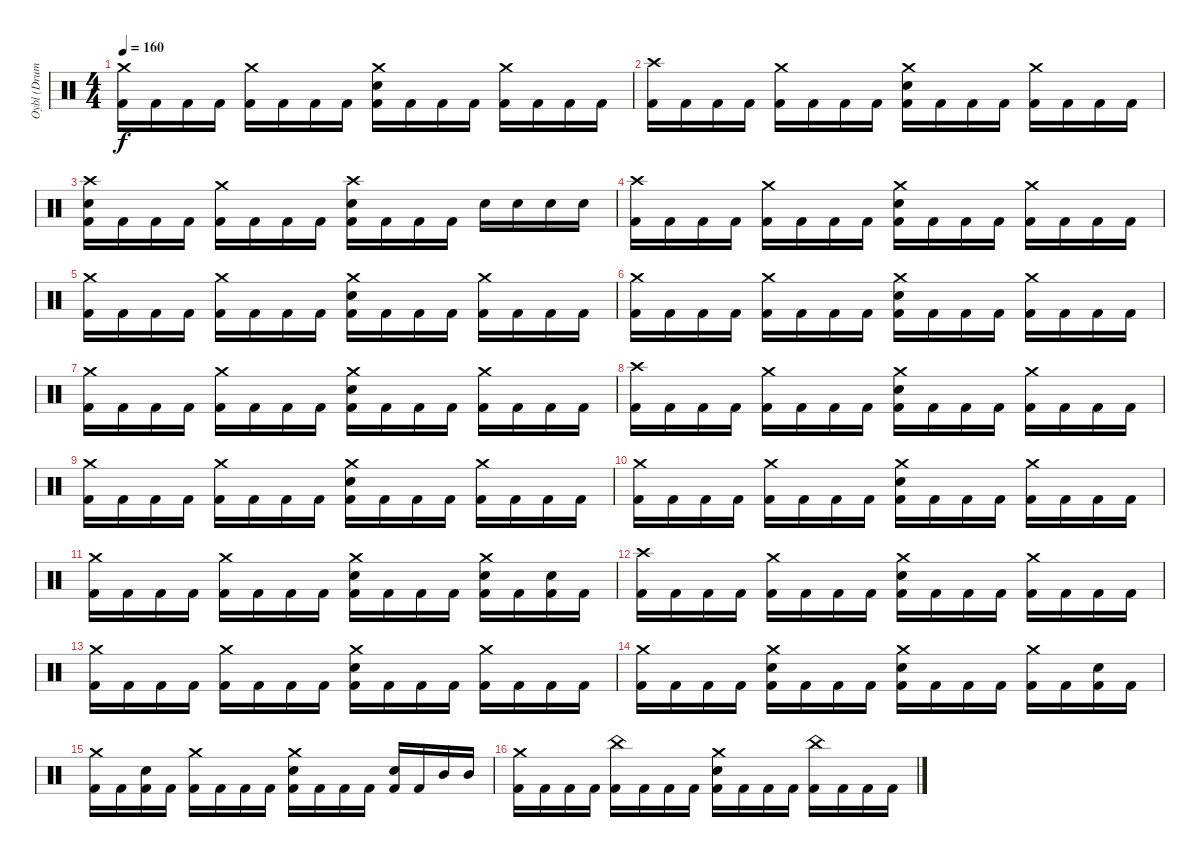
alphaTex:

\track ("Oybl (Drums)" "Oybl (Drum") {instrument percussion}
\staff {score}
\articulation defaults
\ts (4 4)
\tempo 160
\clef neutral
\ks c
("Crash medium (hit)" "Kick (hit) 2").16{dy f} "Kick (hit) 2".16 "Kick (hit) 2".16 "Kick (hit) 2".16 ("Crash medium (hit)" "Kick (hit) 2").16 "Kick (hit) 2".16 "Kick (hit) 2".16 "Kick (hit) 2".16 ("Crash medium (hit)" "Snare (hit) 2" "Kick (hit) 2").16 "Kick (hit) 2".16 "Kick (hit) 2".16 "Kick (hit) 2".16 ("Crash medium (hit)" "Kick (hit) 2").16 "Kick (hit) 2".16 "Kick (hit) 2".16 "Kick (hit) 2".16 |
("Crash high (hit)" "Kick (hit) 2").16 "Kick (hit) 2".16 "Kick (hit) 2".16 "Kick (hit) 2".16 ("Crash medium (hit)" "Kick (hit) 2").16 "Kick (hit) 2".16 "Kick (hit) 2".16 "Kick (hit) 2".16 ("Crash medium (hit)" "Snare (hit) 2" "Kick (hit) 2").16 "Kick (hit) 2".16 "Kick (hit) 2".16 "Kick (hit) 2".16 ("Crash medium (hit)" "Kick (hit) 2").16 "Kick (hit) 2".16 "Kick (hit) 2".16 "Kick (hit) 2".16 |
("Crash high (hit)" "Snare (hit) 2" "Kick (hit) 2").16 "Kick (hit) 2".16 "Kick (hit) 2".16 "Kick (hit) 2".16 ("Crash medium (hit)" "Kick (hit) 2").16 "Kick (hit) 2".16 "Kick (hit) 2".16 "Kick (hit) 2".16 ("Crash high (hit)" "Snare (hit) 2" "Kick (hit) 2").16 "Kick (hit) 2".16 "Kick (hit) 2".16 "Kick (hit) 2".16 "Snare (hit) 2".16 "Snare (hit) 2".16 "Snare (hit) 2".16 "Snare (hit) 2".16 |
("Crash high (hit)" "Kick (hit) 2").16 "Kick (hit) 2".16 "Kick (hit) 2".16 "Kick (hit) 2".16 ("Crash medium (hit)" "Kick (hit) 2").16 "Kick (hit) 2".16 "Kick (hit) 2".16 "Kick (hit) 2".16 ("Crash medium (hit)" "Snare (hit) 2" "Kick (hit) 2").16 "Kick (hit) 2".16 "Kick (hit) 2".16 "Kick (hit) 2".16 ("Crash medium (hit)" "Kick (hit) 2").16 "Kick (hit) 2".16 "Kick (hit) 2".16 "Kick (hit) 2".16 |
("Crash medium (hit)" "Kick (hit) 2").16 "Kick (hit) 2".16 "Kick (hit) 2".16 "Kick (hit) 2".16 ("Crash medium (hit)" "Kick (hit) 2").16 "Kick (hit) 2".16 "Kick (hit) 2".16 "Kick (hit) 2".16 ("Crash medium (hit)" "Snare (hit) 2" "Kick (hit) 2").16 "Kick (hit) 2".16 "Kick (hit) 2".16 "Kick (hit) 2".16 ("Crash medium (hit)" "Kick (hit) 2").16 "Kick (hit) 2".16 "Kick (hit) 2".16 "Kick (hit) 2".16 |
("Crash medium (hit)" "Kick (hit) 2").16 "Kick (hit) 2".16 "Kick (hit) 2".16 "Kick (hit) 2".16 ("Crash medium (hit)" "Kick (hit) 2").16 "Kick (hit) 2".16 "Kick (hit) 2".16 "Kick (hit) 2".16 ("Crash medium (hit)" "Snare (hit) 2" "Kick (hit) 2").16 "Kick (hit) 2".16 "Kick (hit) 2".16 "Kick (hit) 2".16 ("Crash medium (hit)" "Kick (hit) 2").16 "Kick (hit) 2".16 "Kick (hit) 2".16 "Kick (hit) 2".16 |
("Crash medium (hit)" "Kick (hit) 2").16 "Kick (hit) 2".16 "Kick (hit) 2".16 "Kick (hit) 2".16 ("Crash medium (hit)" "Kick (hit) 2").16 "Kick (hit) 2".16 "Kick (hit) 2".16 "Kick (hit) 2".16 ("Crash medium (hit)" "Snare (hit) 2" "Kick (hit) 2").16 "Kick (hit) 2".16 "Kick (hit) 2".16 "Kick (hit) 2".16 ("Crash medium (hit)" "Kick (hit) 2").16 "Kick (hit) 2".16 "Kick (hit) 2".16 "Kick (hit) 2".16 |
("Crash high (hit)" "Kick (hit) 2").16 "Kick (hit) 2".16 "Kick (hit) 2".16 "Kick (hit) 2".16 ("Crash medium (hit)" "Kick (hit) 2").16 "Kick (hit) 2".16 "Kick (hit) 2".16 "Kick (hit) 2".16 ("Crash medium (hit)" "Snare (hit) 2" "Kick (hit) 2").16 "Kick (hit) 2".16 "Kick (hit) 2".16 "Kick (hit) 2".16 ("Crash medium (hit)" "Kick (hit) 2").16 "Kick (hit) 2".16 "Kick (hit) 2".16 "Kick (hit) 2".16 |
("Crash medium (hit)" "Kick (hit) 2").16 "Kick (hit) 2".16 "Kick (hit) 2".16 "Kick (hit) 2".16 ("Crash medium (hit)" "Kick (hit) 2").16 "Kick (hit) 2".16 "Kick (hit) 2".16 "Kick (hit) 2".16 ("Crash medium (hit)" "Snare (hit) 2" "Kick (hit) 2").16 "Kick (hit) 2".16 "Kick (hit) 2".16 "Kick (hit) 2".16 ("Crash medium (hit)" "Kick (hit) 2").16 "Kick (hit) 2".16 "Kick (hit) 2".16 "Kick (hit) 2".16 |
("Crash medium (hit)" "Kick (hit) 2").16 "Kick (hit) 2".16 "Kick (hit) 2".16 "Kick (hit) 2".16 ("Crash medium (hit)" "Kick (hit) 2").16 "Kick (hit) 2".16 "Kick (hit) 2".16 "Kick (hit) 2".16 ("Crash medium (hit)" "Snare (hit) 2" "Kick (hit) 2").16 "Kick (hit) 2".16 "Kick (hit) 2".16 "Kick (hit) 2".16 ("Crash medium (hit)" "Kick (hit) 2").16 "Kick (hit) 2".16 "Kick (hit) 2".16 "Kick (hit) 2".16 |
("Crash medium (hit)" "Kick (hit) 2").16 "Kick (hit) 2".16 "Kick (hit) 2".16 "Kick (hit) 2".16 ("Crash medium (hit)" "Kick (hit) 2").16 "Kick (hit) 2".16 "Kick (hit) 2".16 "Kick (hit) 2".16 ("Crash medium (hit)" "Snare (hit) 2" "Kick (hit) 2").16 "Kick (hit) 2".16 "Kick (hit) 2".16 "Kick (hit) 2".16 ("Crash medium (hit)" "Snare (hit) 2" "Kick (hit) 2").16 "Kick (hit) 2".16 ("Snare (hit) 2" "Kick (hit) 2").16 "Kick (hit) 2".16 |
("Crash high (hit)" "Kick (hit) 2").16 "Kick (hit) 2".16 "Kick (hit) 2".16 "Kick (hit) 2".16 ("Crash medium (hit)" "Kick (hit) 2").16 "Kick (hit) 2".16 "Kick (hit) 2".16 "Kick (hit) 2".16 ("Crash medium (hit)" "Snare (hit) 2" "Kick (hit) 2").16 "Kick (hit) 2".16 "Kick (hit) 2".16 "Kick (hit) 2".16 ("Crash medium (hit)" "Kick (hit) 2").16 "Kick (hit) 2".16 "Kick (hit) 2".16 "Kick (hit) 2".16 |
("Crash medium (hit)" "Kick (hit) 2").16 "Kick (hit) 2".16 "Kick (hit) 2".16 "Kick (hit) 2".16 ("Crash medium (hit)" "Kick (hit) 2").16 "Kick (hit) 2".16 "Kick (hit) 2".16 "Kick (hit) 2".16 ("Crash medium (hit)" "Snare (hit) 2" "Kick (hit) 2").16 "Kick (hit) 2".16 "Kick (hit) 2".16 "Kick (hit) 2".16 ("Crash medium (hit)" "Kick (hit) 2").16 "Kick (hit) 2".16 "Kick (hit) 2".16 "Kick (hit) 2".16 |
("Crash medium (hit)" "Kick (hit) 2").16 "Kick (hit) 2".16 "Kick (hit) 2".16 "Kick (hit) 2".16 ("Crash medium (hit)" "Snare (hit) 2" "Kick (hit) 2").16 "Kick (hit) 2".16 "Kick (hit) 2".16 "Kick (hit) 2".16 ("Crash medium (hit)" "Snare (hit) 2" "Kick (hit) 2").16 "Kick (hit) 2".16 "Kick (hit) 2".16 "Kick (hit) 2".16 ("Crash medium (hit)" "Kick (hit) 2").16 "Kick (hit) 2".16 ("Snare (hit) 2" "Kick (hit) 2").16 "Kick (hit) 2".16 |
("Crash medium (hit)" "Kick (hit) 2").16 "Kick (hit) 2".16 ("Snare (hit) 2" "Kick (hit) 2").16 "Kick (hit) 2".16 ("Crash medium (hit)" "Kick (hit) 2").16 "Kick (hit) 2".16 "Kick (hit) 2".16 "Kick (hit) 2".16 ("Crash medium (hit)" "Snare (hit) 2" "Kick (hit) 2").16 "Kick (hit) 2".16 "Kick (hit) 2".16 "Kick (hit) 2".16 ("Snare (hit) 2" "Kick (hit) 2").16 "Kick (hit) 2".16 "Mid Tom (hit)".16 "Mid Tom (hit)".16 |
("Crash medium (hit)" "Kick (hit) 2").16 "Kick (hit) 2".16 "Kick (hit) 2".16 "Kick (hit) 2".16 ("China (hit)" "Kick (hit) 2").16 "Kick (hit) 2".16 "Kick (hit) 2".16 "Kick (hit) 2".16 ("Crash medium (hit)" "Snare (hit) 2" "Kick (hit) 2").16 "Kick (hit) 2".16 "Kick (hit) 2".16 "Kick (hit) 2".16 ("China (hit)" "Kick (hit) 2").16 "Kick (hit) 2".16 "Kick (hit) 2".16 "Kick (hit) 2".16
